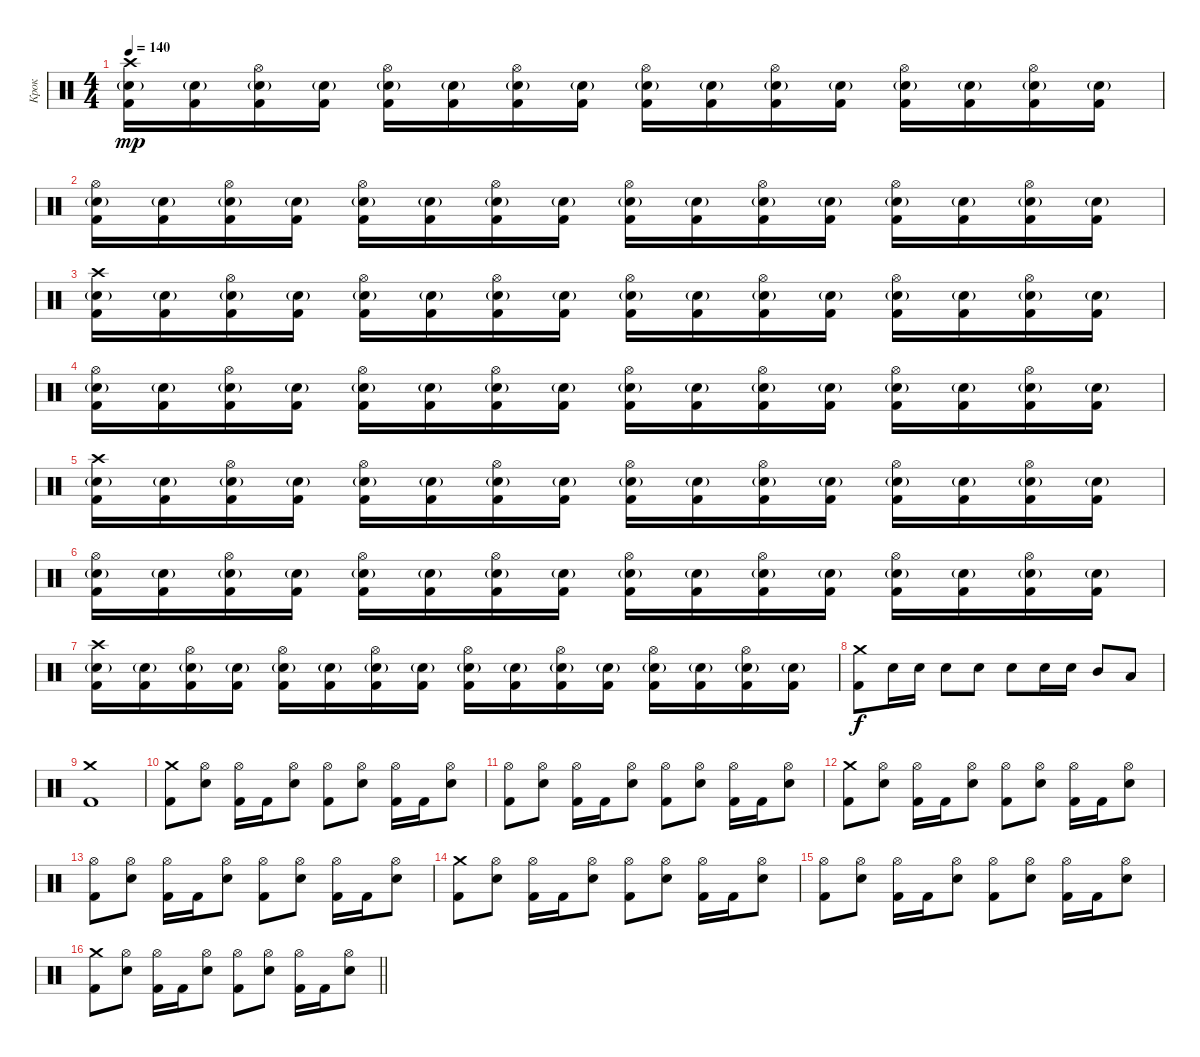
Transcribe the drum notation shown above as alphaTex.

\track ("Крок" "Крок") {instrument percussion}
\staff {score}
\articulation defaults
\ts (4 4)
\tempo 140
\clef neutral
\ks c
("Crash high (hit)" "Electric Snare (hit)"{g} "Kick (hit) 2").16{dy mp} ("Electric Snare (hit)"{g} "Kick (hit) 2").16 ("Hi-Hat (open)" "Electric Snare (hit)"{g} "Kick (hit) 2").16 ("Electric Snare (hit)"{g} "Kick (hit) 2").16 ("Hi-Hat (open)" "Electric Snare (hit)"{g} "Kick (hit) 2").16 ("Electric Snare (hit)"{g} "Kick (hit) 2").16 ("Hi-Hat (open)" "Electric Snare (hit)"{g} "Kick (hit) 2").16 ("Electric Snare (hit)"{g} "Kick (hit) 2").16 ("Hi-Hat (open)" "Electric Snare (hit)"{g} "Kick (hit) 2").16 ("Electric Snare (hit)"{g} "Kick (hit) 2").16 ("Hi-Hat (open)" "Electric Snare (hit)"{g} "Kick (hit) 2").16 ("Electric Snare (hit)"{g} "Kick (hit) 2").16 ("Hi-Hat (open)" "Electric Snare (hit)"{g} "Kick (hit) 2").16 ("Electric Snare (hit)"{g} "Kick (hit) 2").16 ("Hi-Hat (open)" "Electric Snare (hit)"{g} "Kick (hit) 2").16 ("Electric Snare (hit)"{g} "Kick (hit) 2").16 |
("Hi-Hat (open)" "Electric Snare (hit)"{g} "Kick (hit) 2").16 ("Electric Snare (hit)"{g} "Kick (hit) 2").16 ("Hi-Hat (open)" "Electric Snare (hit)"{g} "Kick (hit) 2").16 ("Electric Snare (hit)"{g} "Kick (hit) 2").16 ("Hi-Hat (open)" "Electric Snare (hit)"{g} "Kick (hit) 2").16 ("Electric Snare (hit)"{g} "Kick (hit) 2").16 ("Hi-Hat (open)" "Electric Snare (hit)"{g} "Kick (hit) 2").16 ("Electric Snare (hit)"{g} "Kick (hit) 2").16 ("Hi-Hat (open)" "Electric Snare (hit)"{g} "Kick (hit) 2").16 ("Electric Snare (hit)"{g} "Kick (hit) 2").16 ("Hi-Hat (open)" "Electric Snare (hit)"{g} "Kick (hit) 2").16 ("Electric Snare (hit)"{g} "Kick (hit) 2").16 ("Hi-Hat (open)" "Electric Snare (hit)"{g} "Kick (hit) 2").16 ("Electric Snare (hit)"{g} "Kick (hit) 2").16 ("Hi-Hat (open)" "Electric Snare (hit)"{g} "Kick (hit) 2").16 ("Electric Snare (hit)"{g} "Kick (hit) 2").16 |
("Crash high (hit)" "Electric Snare (hit)"{g} "Kick (hit) 2").16 ("Electric Snare (hit)"{g} "Kick (hit) 2").16 ("Hi-Hat (open)" "Electric Snare (hit)"{g} "Kick (hit) 2").16 ("Electric Snare (hit)"{g} "Kick (hit) 2").16 ("Hi-Hat (open)" "Electric Snare (hit)"{g} "Kick (hit) 2").16 ("Electric Snare (hit)"{g} "Kick (hit) 2").16 ("Hi-Hat (open)" "Electric Snare (hit)"{g} "Kick (hit) 2").16 ("Electric Snare (hit)"{g} "Kick (hit) 2").16 ("Hi-Hat (open)" "Electric Snare (hit)"{g} "Kick (hit) 2").16 ("Electric Snare (hit)"{g} "Kick (hit) 2").16 ("Hi-Hat (open)" "Electric Snare (hit)"{g} "Kick (hit) 2").16 ("Electric Snare (hit)"{g} "Kick (hit) 2").16 ("Hi-Hat (open)" "Electric Snare (hit)"{g} "Kick (hit) 2").16 ("Electric Snare (hit)"{g} "Kick (hit) 2").16 ("Hi-Hat (open)" "Electric Snare (hit)"{g} "Kick (hit) 2").16 ("Electric Snare (hit)"{g} "Kick (hit) 2").16 |
("Hi-Hat (open)" "Electric Snare (hit)"{g} "Kick (hit) 2").16 ("Electric Snare (hit)"{g} "Kick (hit) 2").16 ("Hi-Hat (open)" "Electric Snare (hit)"{g} "Kick (hit) 2").16 ("Electric Snare (hit)"{g} "Kick (hit) 2").16 ("Hi-Hat (open)" "Electric Snare (hit)"{g} "Kick (hit) 2").16 ("Electric Snare (hit)"{g} "Kick (hit) 2").16 ("Hi-Hat (open)" "Electric Snare (hit)"{g} "Kick (hit) 2").16 ("Electric Snare (hit)"{g} "Kick (hit) 2").16 ("Hi-Hat (open)" "Electric Snare (hit)"{g} "Kick (hit) 2").16 ("Electric Snare (hit)"{g} "Kick (hit) 2").16 ("Hi-Hat (open)" "Electric Snare (hit)"{g} "Kick (hit) 2").16 ("Electric Snare (hit)"{g} "Kick (hit) 2").16 ("Hi-Hat (open)" "Electric Snare (hit)"{g} "Kick (hit) 2").16 ("Electric Snare (hit)"{g} "Kick (hit) 2").16 ("Hi-Hat (open)" "Electric Snare (hit)"{g} "Kick (hit) 2").16 ("Electric Snare (hit)"{g} "Kick (hit) 2").16 |
("Crash high (hit)" "Electric Snare (hit)"{g} "Kick (hit) 2").16 ("Electric Snare (hit)"{g} "Kick (hit) 2").16 ("Hi-Hat (open)" "Electric Snare (hit)"{g} "Kick (hit) 2").16 ("Electric Snare (hit)"{g} "Kick (hit) 2").16 ("Hi-Hat (open)" "Electric Snare (hit)"{g} "Kick (hit) 2").16 ("Electric Snare (hit)"{g} "Kick (hit) 2").16 ("Hi-Hat (open)" "Electric Snare (hit)"{g} "Kick (hit) 2").16 ("Electric Snare (hit)"{g} "Kick (hit) 2").16 ("Hi-Hat (open)" "Electric Snare (hit)"{g} "Kick (hit) 2").16 ("Electric Snare (hit)"{g} "Kick (hit) 2").16 ("Hi-Hat (open)" "Electric Snare (hit)"{g} "Kick (hit) 2").16 ("Electric Snare (hit)"{g} "Kick (hit) 2").16 ("Hi-Hat (open)" "Electric Snare (hit)"{g} "Kick (hit) 2").16 ("Electric Snare (hit)"{g} "Kick (hit) 2").16 ("Hi-Hat (open)" "Electric Snare (hit)"{g} "Kick (hit) 2").16 ("Electric Snare (hit)"{g} "Kick (hit) 2").16 |
("Hi-Hat (open)" "Electric Snare (hit)"{g} "Kick (hit) 2").16 ("Electric Snare (hit)"{g} "Kick (hit) 2").16 ("Hi-Hat (open)" "Electric Snare (hit)"{g} "Kick (hit) 2").16 ("Electric Snare (hit)"{g} "Kick (hit) 2").16 ("Hi-Hat (open)" "Electric Snare (hit)"{g} "Kick (hit) 2").16 ("Electric Snare (hit)"{g} "Kick (hit) 2").16 ("Hi-Hat (open)" "Electric Snare (hit)"{g} "Kick (hit) 2").16 ("Electric Snare (hit)"{g} "Kick (hit) 2").16 ("Hi-Hat (open)" "Electric Snare (hit)"{g} "Kick (hit) 2").16 ("Electric Snare (hit)"{g} "Kick (hit) 2").16 ("Hi-Hat (open)" "Electric Snare (hit)"{g} "Kick (hit) 2").16 ("Electric Snare (hit)"{g} "Kick (hit) 2").16 ("Hi-Hat (open)" "Electric Snare (hit)"{g} "Kick (hit) 2").16 ("Electric Snare (hit)"{g} "Kick (hit) 2").16 ("Hi-Hat (open)" "Electric Snare (hit)"{g} "Kick (hit) 2").16 ("Electric Snare (hit)"{g} "Kick (hit) 2").16 |
("Crash high (hit)" "Electric Snare (hit)"{g} "Kick (hit) 2").16 ("Electric Snare (hit)"{g} "Kick (hit) 2").16 ("Hi-Hat (open)" "Electric Snare (hit)"{g} "Kick (hit) 2").16 ("Electric Snare (hit)"{g} "Kick (hit) 2").16 ("Hi-Hat (open)" "Electric Snare (hit)"{g} "Kick (hit) 2").16 ("Electric Snare (hit)"{g} "Kick (hit) 2").16 ("Hi-Hat (open)" "Electric Snare (hit)"{g} "Kick (hit) 2").16 ("Electric Snare (hit)"{g} "Kick (hit) 2").16 ("Hi-Hat (open)" "Electric Snare (hit)"{g} "Kick (hit) 2").16 ("Electric Snare (hit)"{g} "Kick (hit) 2").16 ("Hi-Hat (open)" "Electric Snare (hit)"{g} "Kick (hit) 2").16 ("Electric Snare (hit)"{g} "Kick (hit) 2").16 ("Hi-Hat (open)" "Electric Snare (hit)"{g} "Kick (hit) 2").16 ("Electric Snare (hit)"{g} "Kick (hit) 2").16 ("Hi-Hat (open)" "Electric Snare (hit)"{g} "Kick (hit) 2").16 ("Electric Snare (hit)"{g} "Kick (hit) 2").16 |
("Crash medium (hit)" "Kick (hit) 2").8{dy f} "Electric Snare (hit)".16 "Electric Snare (hit)".16 "Electric Snare (hit)".8 "Electric Snare (hit)".8 "Electric Snare (hit)".8 "Electric Snare (hit)".16 "Electric Snare (hit)".16 "Mid Tom (hit)".8 "Low Tom (hit)".8 |
("Crash medium (hit)" "Kick (hit) 2").1 |
("Crash medium (hit)" "Kick (hit) 2").8 ("Hi-Hat (open)" "Electric Snare (hit)").8 ("Hi-Hat (open)" "Kick (hit) 2").16 "Kick (hit) 2".16 ("Hi-Hat (open)" "Electric Snare (hit)").8 ("Hi-Hat (open)" "Kick (hit) 2").8 ("Hi-Hat (open)" "Electric Snare (hit)").8 ("Hi-Hat (open)" "Kick (hit) 2").16 "Kick (hit) 2".16 ("Hi-Hat (open)" "Electric Snare (hit)").8 |
("Hi-Hat (open)" "Kick (hit) 2").8 ("Hi-Hat (open)" "Electric Snare (hit)").8 ("Hi-Hat (open)" "Kick (hit) 2").16 "Kick (hit) 2".16 ("Hi-Hat (open)" "Electric Snare (hit)").8 ("Hi-Hat (open)" "Kick (hit) 2").8 ("Hi-Hat (open)" "Electric Snare (hit)").8 ("Hi-Hat (open)" "Kick (hit) 2").16 "Kick (hit) 2".16 ("Hi-Hat (open)" "Electric Snare (hit)").8 |
("Crash medium (hit)" "Kick (hit) 2").8 ("Hi-Hat (open)" "Electric Snare (hit)").8 ("Hi-Hat (open)" "Kick (hit) 2").16 "Kick (hit) 2".16 ("Hi-Hat (open)" "Electric Snare (hit)").8 ("Hi-Hat (open)" "Kick (hit) 2").8 ("Hi-Hat (open)" "Electric Snare (hit)").8 ("Hi-Hat (open)" "Kick (hit) 2").16 "Kick (hit) 2".16 ("Hi-Hat (open)" "Electric Snare (hit)").8 |
("Hi-Hat (open)" "Kick (hit) 2").8 ("Hi-Hat (open)" "Electric Snare (hit)").8 ("Hi-Hat (open)" "Kick (hit) 2").16 "Kick (hit) 2".16 ("Hi-Hat (open)" "Electric Snare (hit)").8 ("Hi-Hat (open)" "Kick (hit) 2").8 ("Hi-Hat (open)" "Electric Snare (hit)").8 ("Hi-Hat (open)" "Kick (hit) 2").16 "Kick (hit) 2".16 ("Hi-Hat (open)" "Electric Snare (hit)").8 |
("Crash medium (hit)" "Kick (hit) 2").8 ("Hi-Hat (open)" "Electric Snare (hit)").8 ("Hi-Hat (open)" "Kick (hit) 2").16 "Kick (hit) 2".16 ("Hi-Hat (open)" "Electric Snare (hit)").8 ("Hi-Hat (open)" "Kick (hit) 2").8 ("Hi-Hat (open)" "Electric Snare (hit)").8 ("Hi-Hat (open)" "Kick (hit) 2").16 "Kick (hit) 2".16 ("Hi-Hat (open)" "Electric Snare (hit)").8 |
("Hi-Hat (open)" "Kick (hit) 2").8 ("Hi-Hat (open)" "Electric Snare (hit)").8 ("Hi-Hat (open)" "Kick (hit) 2").16 "Kick (hit) 2".16 ("Hi-Hat (open)" "Electric Snare (hit)").8 ("Hi-Hat (open)" "Kick (hit) 2").8 ("Hi-Hat (open)" "Electric Snare (hit)").8 ("Hi-Hat (open)" "Kick (hit) 2").16 "Kick (hit) 2".16 ("Hi-Hat (open)" "Electric Snare (hit)").8 |
\barLineRight lightlight
("Crash medium (hit)" "Kick (hit) 2").8 ("Hi-Hat (open)" "Electric Snare (hit)").8 ("Hi-Hat (open)" "Kick (hit) 2").16 "Kick (hit) 2".16 ("Hi-Hat (open)" "Electric Snare (hit)").8 ("Hi-Hat (open)" "Kick (hit) 2").8 ("Hi-Hat (open)" "Electric Snare (hit)").8 ("Hi-Hat (open)" "Kick (hit) 2").16 "Kick (hit) 2".16 ("Hi-Hat (open)" "Electric Snare (hit)").8
